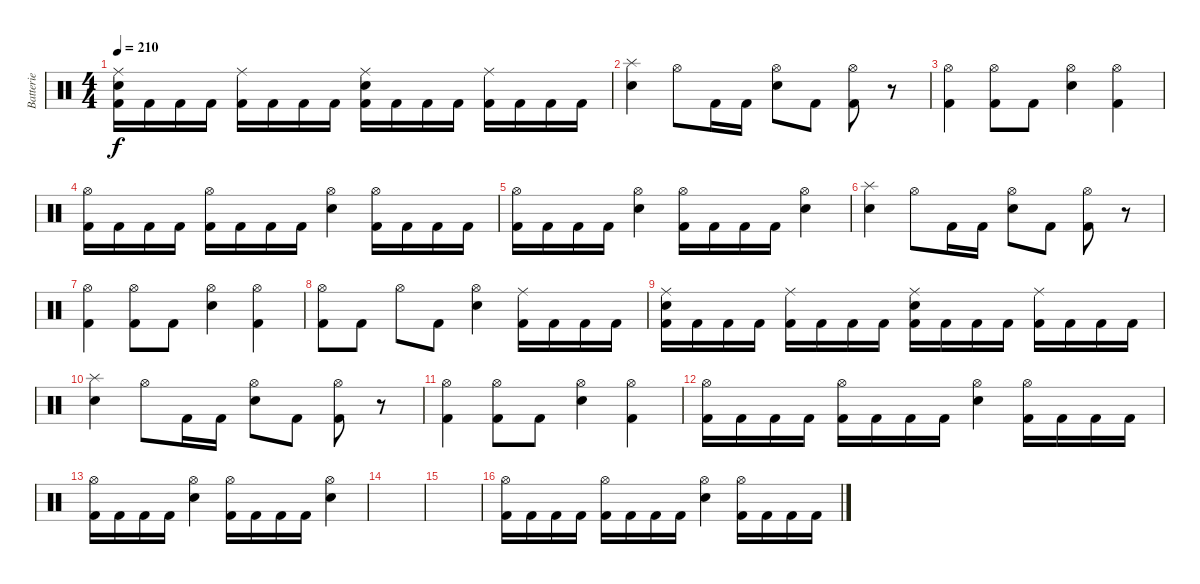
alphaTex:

\track ("Batterie" "Batterie") {instrument percussion}
\staff {score}
\articulation defaults
\ts (4 4)
\tempo 210
\clef neutral
\ks c
("Ride (middle)" "Electric Snare (hit)" "Kick (hit) 2").16{dy f} "Kick (hit) 2".16 "Kick (hit) 2".16 "Kick (hit) 2".16 ("Ride (middle)" "Kick (hit) 2").16 "Kick (hit) 2".16 "Kick (hit) 2".16 "Kick (hit) 2".16 ("Ride (middle)" "Electric Snare (hit)" "Kick (hit) 2").16 "Kick (hit) 2".16 "Kick (hit) 2".16 "Kick (hit) 2".16 ("Ride (middle)" "Kick (hit) 2").16 "Kick (hit) 2".16 "Kick (hit) 2".16 "Kick (hit) 2".16 |
("Splash (hit)" "Electric Snare (hit)").4 "Hi-Hat (open)".8 "Kick (hit) 2".16 "Kick (hit) 2".16 ("Hi-Hat (open)" "Electric Snare (hit)").8 "Kick (hit) 2".8 ("Hi-Hat (open)" "Kick (hit) 2").8 r.8 |
("Hi-Hat (open)" "Kick (hit) 2").4 ("Hi-Hat (open)" "Kick (hit) 2").8 "Kick (hit) 2".8 ("Hi-Hat (open)" "Electric Snare (hit)").4 ("Hi-Hat (open)" "Kick (hit) 2").4 |
("Hi-Hat (open)" "Kick (hit) 2").16 "Kick (hit) 2".16 "Kick (hit) 2".16 "Kick (hit) 2".16 ("Hi-Hat (open)" "Kick (hit) 2").16 "Kick (hit) 2".16 "Kick (hit) 2".16 "Kick (hit) 2".16 ("Hi-Hat (open)" "Electric Snare (hit)").4 ("Hi-Hat (open)" "Kick (hit) 2").16 "Kick (hit) 2".16 "Kick (hit) 2".16 "Kick (hit) 2".16 |
("Hi-Hat (open)" "Kick (hit) 2").16 "Kick (hit) 2".16 "Kick (hit) 2".16 "Kick (hit) 2".16 ("Hi-Hat (open)" "Electric Snare (hit)").4 ("Hi-Hat (open)" "Kick (hit) 2").16 "Kick (hit) 2".16 "Kick (hit) 2".16 "Kick (hit) 2".16 ("Hi-Hat (open)" "Electric Snare (hit)").4 |
("Splash (hit)" "Electric Snare (hit)").4 "Hi-Hat (open)".8 "Kick (hit) 2".16 "Kick (hit) 2".16 ("Hi-Hat (open)" "Electric Snare (hit)").8 "Kick (hit) 2".8 ("Hi-Hat (open)" "Kick (hit) 2").8 r.8 |
("Hi-Hat (open)" "Kick (hit) 2").4 ("Hi-Hat (open)" "Kick (hit) 2").8 "Kick (hit) 2".8 ("Hi-Hat (open)" "Electric Snare (hit)").4 ("Hi-Hat (open)" "Kick (hit) 2").4 |
("Hi-Hat (open)" "Kick (hit) 2").8 "Kick (hit) 2".8 "Hi-Hat (open)".8 "Kick (hit) 2".8 ("Hi-Hat (open)" "Electric Snare (hit)").4 ("Ride (middle)" "Kick (hit) 2").16 "Kick (hit) 2".16 "Kick (hit) 2".16 "Kick (hit) 2".16 |
("Ride (middle)" "Electric Snare (hit)" "Kick (hit) 2").16 "Kick (hit) 2".16 "Kick (hit) 2".16 "Kick (hit) 2".16 ("Ride (middle)" "Kick (hit) 2").16 "Kick (hit) 2".16 "Kick (hit) 2".16 "Kick (hit) 2".16 ("Ride (middle)" "Electric Snare (hit)" "Kick (hit) 2").16 "Kick (hit) 2".16 "Kick (hit) 2".16 "Kick (hit) 2".16 ("Ride (middle)" "Kick (hit) 2").16 "Kick (hit) 2".16 "Kick (hit) 2".16 "Kick (hit) 2".16 |
("Splash (hit)" "Electric Snare (hit)").4 "Hi-Hat (open)".8 "Kick (hit) 2".16 "Kick (hit) 2".16 ("Hi-Hat (open)" "Electric Snare (hit)").8 "Kick (hit) 2".8 ("Hi-Hat (open)" "Kick (hit) 2").8 r.8 |
("Hi-Hat (open)" "Kick (hit) 2").4 ("Hi-Hat (open)" "Kick (hit) 2").8 "Kick (hit) 2".8 ("Hi-Hat (open)" "Electric Snare (hit)").4 ("Hi-Hat (open)" "Kick (hit) 2").4 |
("Hi-Hat (open)" "Kick (hit) 2").16 "Kick (hit) 2".16 "Kick (hit) 2".16 "Kick (hit) 2".16 ("Hi-Hat (open)" "Kick (hit) 2").16 "Kick (hit) 2".16 "Kick (hit) 2".16 "Kick (hit) 2".16 ("Hi-Hat (open)" "Electric Snare (hit)").4 ("Hi-Hat (open)" "Kick (hit) 2").16 "Kick (hit) 2".16 "Kick (hit) 2".16 "Kick (hit) 2".16 |
("Hi-Hat (open)" "Kick (hit) 2").16 "Kick (hit) 2".16 "Kick (hit) 2".16 "Kick (hit) 2".16 ("Hi-Hat (open)" "Electric Snare (hit)").4 ("Hi-Hat (open)" "Kick (hit) 2").16 "Kick (hit) 2".16 "Kick (hit) 2".16 "Kick (hit) 2".16 ("Hi-Hat (open)" "Electric Snare (hit)").4 |
|
|
("Hi-Hat (open)" "Kick (hit) 2").16 "Kick (hit) 2".16 "Kick (hit) 2".16 "Kick (hit) 2".16 ("Hi-Hat (open)" "Kick (hit) 2").16 "Kick (hit) 2".16 "Kick (hit) 2".16 "Kick (hit) 2".16 ("Hi-Hat (open)" "Electric Snare (hit)").4 ("Hi-Hat (open)" "Kick (hit) 2").16 "Kick (hit) 2".16 "Kick (hit) 2".16 "Kick (hit) 2".16
